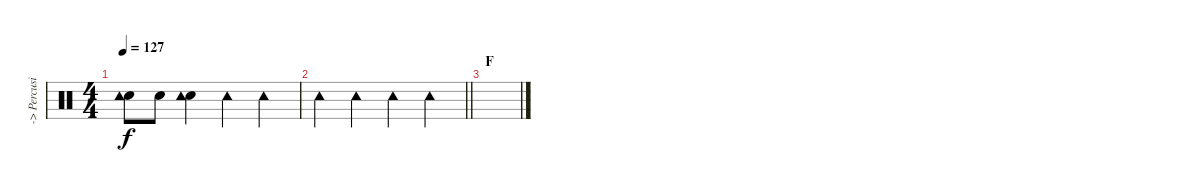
\track ("-> Percusion" "-> Percusi") {instrument percussion}
\staff {score}
\articulation defaults
\ts (4 4)
\tempo 127
\clef neutral
\ks c
("Hand Clap (hit)" "Tambourine (hit)").8{dy f} "Hand Clap (hit)".8 ("Hand Clap (hit)" "Tambourine (hit)").4 "Tambourine (hit)".4 "Tambourine (hit)".4 |
\barLineRight lightlight "Tambourine (hit)".4 "Tambourine (hit)".4 "Tambourine (hit)".4 "Tambourine (hit)".4
|
\section ("" "F")
